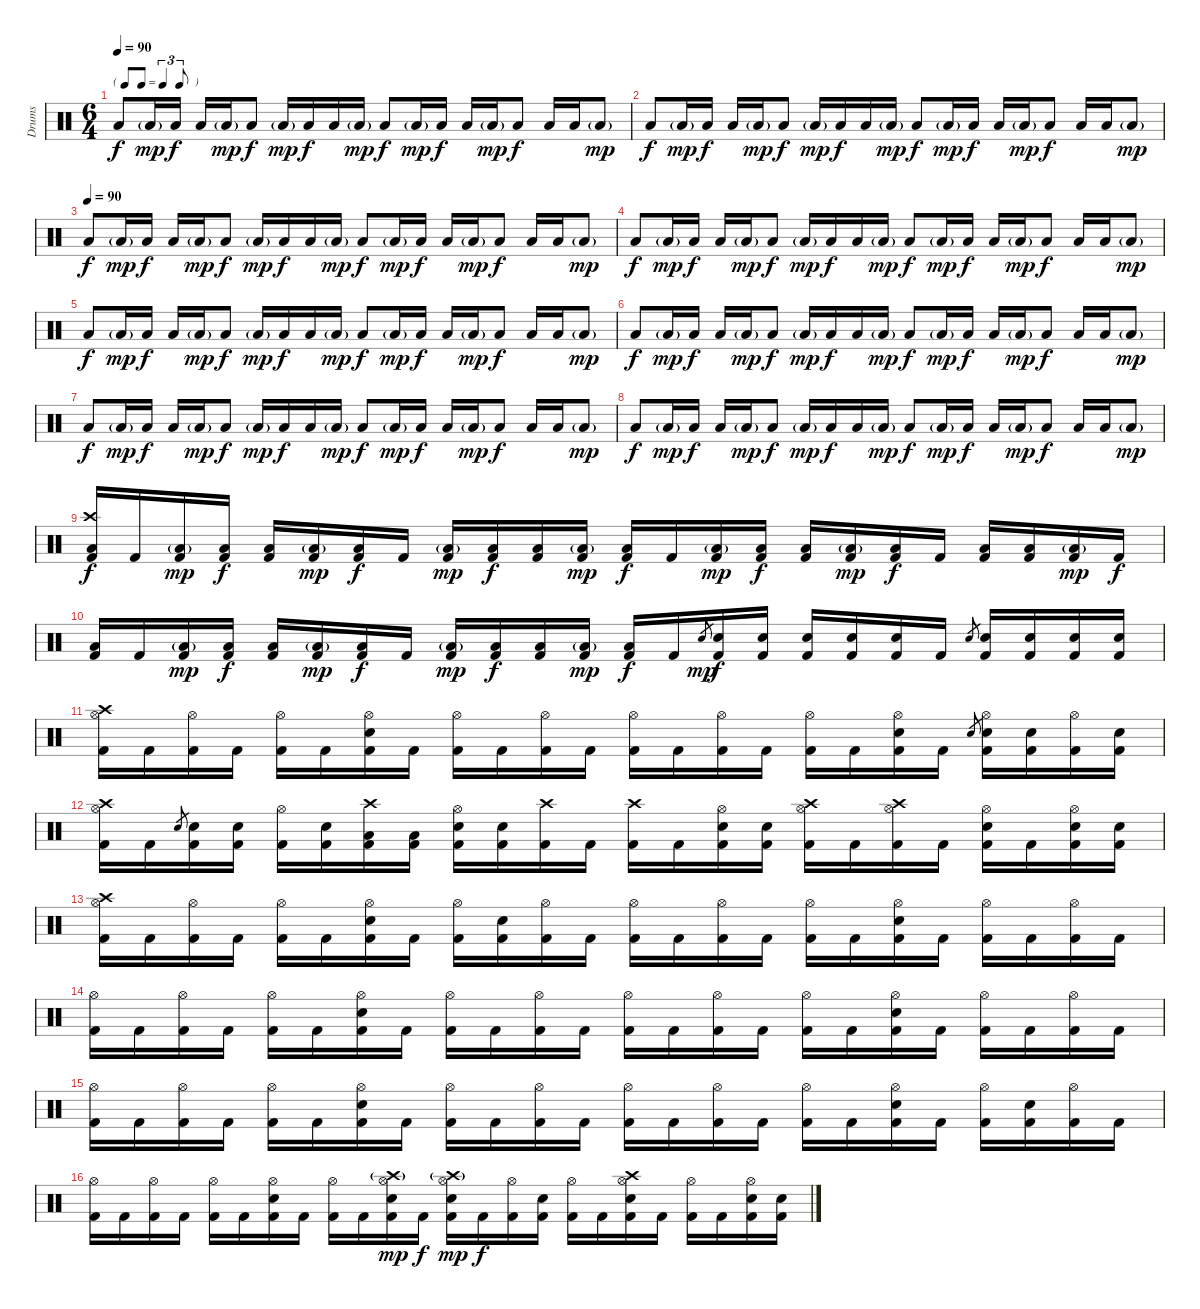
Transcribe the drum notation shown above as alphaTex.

\track ("Drums" "Drums") {instrument percussion}
\staff {score}
\articulation defaults
\ts (6 4)
\tf triplet8th
\tempo 90
\clef neutral
\ks c "Low Floor Tom (hit)".8{dy f} "Low Tom (hit)"{g}.16{dy mp} "Low Floor Tom (hit)".16{dy f} "Low Tom (hit)".16 "Low Floor Tom (hit)"{g}.16{dy mp} "Low Floor Tom (hit)".8{dy f} "Low Tom (hit)"{g}.16{dy mp} "Low Floor Tom (hit)".16{dy f} "Low Tom (hit)".16 "Low Floor Tom (hit)"{g}.16{dy mp} "Low Floor Tom (hit)".8{dy f} "Low Tom (hit)"{g}.16{dy mp} "Low Floor Tom (hit)".16{dy f} "Low Tom (hit)".16 "Low Floor Tom (hit)"{g}.16{dy mp} "Low Floor Tom (hit)".8{dy f} "Low Tom (hit)".16 "Low Floor Tom (hit)".16 "Low Tom (hit)"{g}.8{dy mp}
|
"Low Floor Tom (hit)".8{dy f} "Low Tom (hit)"{g}.16{dy mp} "Low Floor Tom (hit)".16{dy f} "Low Tom (hit)".16 "Low Floor Tom (hit)"{g}.16{dy mp} "Low Floor Tom (hit)".8{dy f} "Low Tom (hit)"{g}.16{dy mp} "Low Floor Tom (hit)".16{dy f} "Low Tom (hit)".16 "Low Floor Tom (hit)"{g}.16{dy mp} "Low Floor Tom (hit)".8{dy f} "Low Tom (hit)"{g}.16{dy mp} "Low Floor Tom (hit)".16{dy f} "Low Tom (hit)".16 "Low Floor Tom (hit)"{g}.16{dy mp} "Low Floor Tom (hit)".8{dy f} "Low Tom (hit)".16 "Low Floor Tom (hit)".16 "Low Tom (hit)"{g}.8{dy mp} |
\tempo (90)
"Low Floor Tom (hit)".8{dy f} "Low Tom (hit)"{g}.16{dy mp} "Low Floor Tom (hit)".16{dy f} "Low Tom (hit)".16 "Low Floor Tom (hit)"{g}.16{dy mp} "Low Floor Tom (hit)".8{dy f} "Low Tom (hit)"{g}.16{dy mp} "Low Floor Tom (hit)".16{dy f} "Low Tom (hit)".16 "Low Floor Tom (hit)"{g}.16{dy mp} "Low Floor Tom (hit)".8{dy f} "Low Tom (hit)"{g}.16{dy mp} "Low Floor Tom (hit)".16{dy f} "Low Tom (hit)".16 "Low Floor Tom (hit)"{g}.16{dy mp} "Low Floor Tom (hit)".8{dy f} "Low Tom (hit)".16 "Low Floor Tom (hit)".16 "Low Tom (hit)"{g}.8{dy mp} |
"Low Floor Tom (hit)".8{dy f} "Low Tom (hit)"{g}.16{dy mp} "Low Floor Tom (hit)".16{dy f} "Low Tom (hit)".16 "Low Floor Tom (hit)"{g}.16{dy mp} "Low Floor Tom (hit)".8{dy f} "Low Tom (hit)"{g}.16{dy mp} "Low Floor Tom (hit)".16{dy f} "Low Tom (hit)".16 "Low Floor Tom (hit)"{g}.16{dy mp} "Low Floor Tom (hit)".8{dy f} "Low Tom (hit)"{g}.16{dy mp} "Low Floor Tom (hit)".16{dy f} "Low Tom (hit)".16 "Low Floor Tom (hit)"{g}.16{dy mp} "Low Floor Tom (hit)".8{dy f} "Low Tom (hit)".16 "Low Floor Tom (hit)".16 "Low Tom (hit)"{g}.8{dy mp} |
"Low Floor Tom (hit)".8{dy f} "Low Tom (hit)"{g}.16{dy mp} "Low Floor Tom (hit)".16{dy f} "Low Tom (hit)".16 "Low Floor Tom (hit)"{g}.16{dy mp} "Low Floor Tom (hit)".8{dy f} "Low Tom (hit)"{g}.16{dy mp} "Low Floor Tom (hit)".16{dy f} "Low Tom (hit)".16 "Low Floor Tom (hit)"{g}.16{dy mp} "Low Floor Tom (hit)".8{dy f} "Low Tom (hit)"{g}.16{dy mp} "Low Floor Tom (hit)".16{dy f} "Low Tom (hit)".16 "Low Floor Tom (hit)"{g}.16{dy mp} "Low Floor Tom (hit)".8{dy f} "Low Tom (hit)".16 "Low Floor Tom (hit)".16 "Low Tom (hit)"{g}.8{dy mp} |
"Low Floor Tom (hit)".8{dy f} "Low Tom (hit)"{g}.16{dy mp} "Low Floor Tom (hit)".16{dy f} "Low Tom (hit)".16 "Low Floor Tom (hit)"{g}.16{dy mp} "Low Floor Tom (hit)".8{dy f} "Low Tom (hit)"{g}.16{dy mp} "Low Floor Tom (hit)".16{dy f} "Low Tom (hit)".16 "Low Floor Tom (hit)"{g}.16{dy mp} "Low Floor Tom (hit)".8{dy f} "Low Tom (hit)"{g}.16{dy mp} "Low Floor Tom (hit)".16{dy f} "Low Tom (hit)".16 "Low Floor Tom (hit)"{g}.16{dy mp} "Low Floor Tom (hit)".8{dy f} "Low Tom (hit)".16 "Low Floor Tom (hit)".16 "Low Tom (hit)"{g}.8{dy mp} |
"Low Floor Tom (hit)".8{dy f} "Low Tom (hit)"{g}.16{dy mp} "Low Floor Tom (hit)".16{dy f} "Low Tom (hit)".16 "Low Floor Tom (hit)"{g}.16{dy mp} "Low Floor Tom (hit)".8{dy f} "Low Tom (hit)"{g}.16{dy mp} "Low Floor Tom (hit)".16{dy f} "Low Tom (hit)".16 "Low Floor Tom (hit)"{g}.16{dy mp} "Low Floor Tom (hit)".8{dy f} "Low Tom (hit)"{g}.16{dy mp} "Low Floor Tom (hit)".16{dy f} "Low Tom (hit)".16 "Low Floor Tom (hit)"{g}.16{dy mp} "Low Floor Tom (hit)".8{dy f} "Low Tom (hit)".16 "Low Floor Tom (hit)".16 "Low Tom (hit)"{g}.8{dy mp} |
"Low Floor Tom (hit)".8{dy f} "Low Tom (hit)"{g}.16{dy mp} "Low Floor Tom (hit)".16{dy f} "Low Tom (hit)".16 "Low Floor Tom (hit)"{g}.16{dy mp} "Low Floor Tom (hit)".8{dy f} "Low Tom (hit)"{g}.16{dy mp} "Low Floor Tom (hit)".16{dy f} "Low Tom (hit)".16 "Low Floor Tom (hit)"{g}.16{dy mp} "Low Floor Tom (hit)".8{dy f} "Low Tom (hit)"{g}.16{dy mp} "Low Floor Tom (hit)".16{dy f} "Low Tom (hit)".16 "Low Floor Tom (hit)"{g}.16{dy mp} "Low Floor Tom (hit)".8{dy f} "Low Tom (hit)".16 "Low Floor Tom (hit)".16 "Low Tom (hit)"{g}.8{dy mp} |
("Crash high (hit)" "Low Floor Tom (hit)" "Kick (hit) 2").16{dy f} "Kick (hit) 2".16 ("Low Tom (hit)"{g} "Kick (hit) 2").16{dy mp} ("Low Floor Tom (hit)" "Kick (hit) 2").16{dy f} ("Low Tom (hit)" "Kick (hit) 2").16 ("Low Floor Tom (hit)"{g} "Kick (hit) 2").16{dy mp} ("Low Floor Tom (hit)" "Kick (hit) 2").16{dy f} "Kick (hit) 2".16 ("Low Tom (hit)"{g} "Kick (hit) 2").16{dy mp} ("Low Floor Tom (hit)" "Kick (hit) 2").16{dy f} ("Low Tom (hit)" "Kick (hit) 2").16 ("Low Floor Tom (hit)"{g} "Kick (hit) 2").16{dy mp} ("Low Floor Tom (hit)" "Kick (hit) 2").16{dy f} "Kick (hit) 2".16 ("Low Tom (hit)"{g} "Kick (hit) 2").16{dy mp} ("Low Floor Tom (hit)" "Kick (hit) 2").16{dy f} ("Low Tom (hit)" "Kick (hit) 2").16 ("Low Floor Tom (hit)"{g} "Kick (hit) 2").16{dy mp} ("Low Floor Tom (hit)" "Kick (hit) 2").16{dy f} "Kick (hit) 2".16 ("Low Tom (hit)" "Kick (hit) 2").16 ("Low Floor Tom (hit)" "Kick (hit) 2").16 ("Low Tom (hit)"{g} "Kick (hit) 2").16{dy mp} "Kick (hit) 2".16{dy f} |
("Low Floor Tom (hit)" "Kick (hit) 2").16 "Kick (hit) 2".16 ("Low Tom (hit)"{g} "Kick (hit) 2").16{dy mp} ("Low Tom (hit)" "Kick (hit) 2").16{dy f} ("Low Tom (hit)" "Kick (hit) 2").16 ("Low Floor Tom (hit)"{g} "Kick (hit) 2").16{dy mp} ("Low Floor Tom (hit)" "Kick (hit) 2").16{dy f} "Kick (hit) 2".16 ("Low Tom (hit)"{g} "Kick (hit) 2").16{dy mp} ("Low Tom (hit)" "Kick (hit) 2").16{dy f} ("Low Tom (hit)" "Kick (hit) 2").16 ("Low Floor Tom (hit)"{g} "Kick (hit) 2").16{dy mp} ("Low Floor Tom (hit)" "Kick (hit) 2").16{dy f} "Kick (hit) 2".16 "Snare (hit) 2".8{gr dy mp} ("Snare (hit) 2" "Kick (hit) 2").16{dy f} ("Snare (hit) 2" "Kick (hit) 2").16 ("Snare (hit) 2" "Kick (hit) 2").16 ("Snare (hit) 2" "Kick (hit) 2").16 ("Snare (hit) 2" "Kick (hit) 2").16 "Kick (hit) 2".16 "Snare (hit) 2".8{gr} ("Snare (hit) 2" "Kick (hit) 2").16 ("Snare (hit) 2" "Kick (hit) 2").16 ("Snare (hit) 2" "Kick (hit) 2").16 ("Snare (hit) 2" "Kick (hit) 2").16 |
("Crash high (hit)" "Hi-Hat (open)" "Kick (hit) 2").16 "Kick (hit) 2".16 ("Hi-Hat (open)" "Kick (hit) 2").16 "Kick (hit) 2".16 ("Hi-Hat (open)" "Kick (hit) 2").16 "Kick (hit) 2".16 ("Hi-Hat (open)" "Snare (hit) 2" "Kick (hit) 2").16 "Kick (hit) 2".16 ("Hi-Hat (open)" "Kick (hit) 2").16 "Kick (hit) 2".16 ("Hi-Hat (open)" "Kick (hit) 2").16 "Kick (hit) 2".16 ("Hi-Hat (open)" "Kick (hit) 2").16 "Kick (hit) 2".16 ("Hi-Hat (open)" "Kick (hit) 2").16 "Kick (hit) 2".16 ("Hi-Hat (open)" "Kick (hit) 2").16 "Kick (hit) 2".16 ("Hi-Hat (open)" "Snare (hit) 2" "Kick (hit) 2").16 "Kick (hit) 2".16 "Snare (hit) 2".8{gr} ("Hi-Hat (open)" "Snare (hit) 2" "Kick (hit) 2").16 ("Snare (hit) 2" "Kick (hit) 2").16 ("Hi-Hat (open)" "Kick (hit) 2").16 ("Snare (hit) 2" "Kick (hit) 2").16 |
("Crash high (hit)" "Hi-Hat (open)" "Kick (hit) 2").16 "Kick (hit) 2".16 "Snare (hit) 2".8{gr} ("Snare (hit) 2" "Kick (hit) 2").16 ("Snare (hit) 2" "Kick (hit) 2").16 ("Hi-Hat (open)" "Kick (hit) 2").16 ("Snare (hit) 2" "Kick (hit) 2").16 ("Crash high (hit)" "Low Tom (hit)" "Kick (hit) 2").16 ("Low Tom (hit)" "Kick (hit) 2").16 ("Hi-Hat (open)" "Snare (hit) 2" "Kick (hit) 2").16 ("Snare (hit) 2" "Kick (hit) 2").16 ("Crash high (hit)" "Kick (hit) 2").16 "Kick (hit) 2".16 ("Crash high (hit)" "Kick (hit) 2").16 "Kick (hit) 2".16 ("Hi-Hat (open)" "Snare (hit) 2" "Kick (hit) 2").16 ("Snare (hit) 2" "Kick (hit) 2").16 ("Crash high (hit)" "Hi-Hat (open)" "Kick (hit) 2").16 "Kick (hit) 2".16 ("Crash high (hit)" "Hi-Hat (open)" "Kick (hit) 2").16 "Kick (hit) 2".16 ("Hi-Hat (open)" "Snare (hit) 2" "Kick (hit) 2").16 "Kick (hit) 2".16 ("Hi-Hat (open)" "Snare (hit) 2" "Kick (hit) 2").16 ("Snare (hit) 2" "Kick (hit) 2").16 |
("Crash high (hit)" "Hi-Hat (open)" "Kick (hit) 2").16 "Kick (hit) 2".16 ("Hi-Hat (open)" "Kick (hit) 2").16 "Kick (hit) 2".16 ("Hi-Hat (open)" "Kick (hit) 2").16 "Kick (hit) 2".16 ("Hi-Hat (open)" "Snare (hit) 2" "Kick (hit) 2").16 "Kick (hit) 2".16 ("Hi-Hat (open)" "Kick (hit) 2").16 ("Snare (hit) 2" "Kick (hit) 2").16 ("Hi-Hat (open)" "Kick (hit) 2").16 "Kick (hit) 2".16 ("Hi-Hat (open)" "Kick (hit) 2").16 "Kick (hit) 2".16 ("Hi-Hat (open)" "Kick (hit) 2").16 "Kick (hit) 2".16 ("Hi-Hat (open)" "Kick (hit) 2").16 "Kick (hit) 2".16 ("Hi-Hat (open)" "Snare (hit) 2" "Kick (hit) 2").16 "Kick (hit) 2".16 ("Hi-Hat (open)" "Kick (hit) 2").16 "Kick (hit) 2".16 ("Hi-Hat (open)" "Kick (hit) 2").16 "Kick (hit) 2".16 |
("Hi-Hat (open)" "Kick (hit) 2").16 "Kick (hit) 2".16 ("Hi-Hat (open)" "Kick (hit) 2").16 "Kick (hit) 2".16 ("Hi-Hat (open)" "Kick (hit) 2").16 "Kick (hit) 2".16 ("Hi-Hat (open)" "Snare (hit) 2" "Kick (hit) 2").16 "Kick (hit) 2".16 ("Hi-Hat (open)" "Kick (hit) 2").16 "Kick (hit) 2".16 ("Hi-Hat (open)" "Kick (hit) 2").16 "Kick (hit) 2".16 ("Hi-Hat (open)" "Kick (hit) 2").16 "Kick (hit) 2".16 ("Hi-Hat (open)" "Kick (hit) 2").16 "Kick (hit) 2".16 ("Hi-Hat (open)" "Kick (hit) 2").16 "Kick (hit) 2".16 ("Hi-Hat (open)" "Snare (hit) 2" "Kick (hit) 2").16 "Kick (hit) 2".16 ("Hi-Hat (open)" "Kick (hit) 2").16 "Kick (hit) 2".16 ("Hi-Hat (open)" "Kick (hit) 2").16 "Kick (hit) 2".16 |
("Hi-Hat (open)" "Kick (hit) 2").16 "Kick (hit) 2".16 ("Hi-Hat (open)" "Kick (hit) 2").16 "Kick (hit) 2".16 ("Hi-Hat (open)" "Kick (hit) 2").16 "Kick (hit) 2".16 ("Hi-Hat (open)" "Snare (hit) 2" "Kick (hit) 2").16 "Kick (hit) 2".16 ("Hi-Hat (open)" "Kick (hit) 2").16 "Kick (hit) 2".16 ("Hi-Hat (open)" "Kick (hit) 2").16 "Kick (hit) 2".16 ("Hi-Hat (open)" "Kick (hit) 2").16 "Kick (hit) 2".16 ("Hi-Hat (open)" "Kick (hit) 2").16 "Kick (hit) 2".16 ("Hi-Hat (open)" "Kick (hit) 2").16 "Kick (hit) 2".16 ("Hi-Hat (open)" "Snare (hit) 2" "Kick (hit) 2").16 "Kick (hit) 2".16 ("Hi-Hat (open)" "Kick (hit) 2").16 ("Snare (hit) 2" "Kick (hit) 2").16 ("Hi-Hat (open)" "Kick (hit) 2").16 "Kick (hit) 2".16 |
("Hi-Hat (open)" "Kick (hit) 2").16 "Kick (hit) 2".16 ("Hi-Hat (open)" "Kick (hit) 2").16 "Kick (hit) 2".16 ("Hi-Hat (open)" "Kick (hit) 2").16 "Kick (hit) 2".16 ("Hi-Hat (open)" "Snare (hit) 2" "Kick (hit) 2").16 "Kick (hit) 2".16 ("Hi-Hat (open)" "Kick (hit) 2").16 "Kick (hit) 2".16 ("Crash high (hit)"{g} "Hi-Hat (open)" "Snare (hit) 2" "Kick (hit) 2").16{dy mp} "Kick (hit) 2".16{dy f} ("Crash high (hit)"{g} "Hi-Hat (open)" "Snare (hit) 2" "Kick (hit) 2").16{dy mp} "Kick (hit) 2".16{dy f} ("Hi-Hat (open)" "Kick (hit) 2").16 ("Snare (hit) 2" "Kick (hit) 2").16 ("Hi-Hat (open)" "Kick (hit) 2").16 "Kick (hit) 2".16 ("Crash high (hit)" "Hi-Hat (open)" "Snare (hit) 2" "Kick (hit) 2").16 "Kick (hit) 2".16 ("Hi-Hat (open)" "Kick (hit) 2").16 "Kick (hit) 2".16 ("Hi-Hat (open)" "Snare (hit) 2" "Kick (hit) 2").16 ("Snare (hit) 2" "Kick (hit) 2").16
